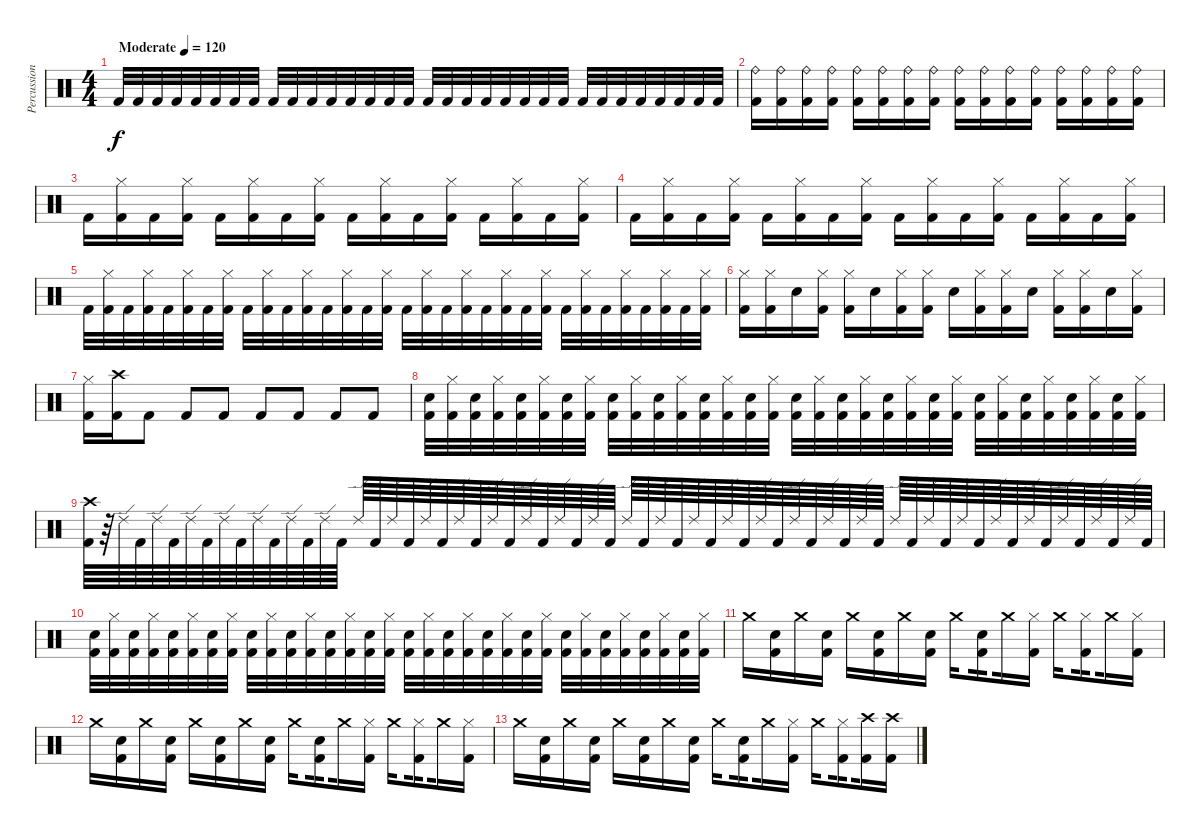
\track ("Percussion" "Percussion") {instrument percussion}
\staff {score}
\articulation defaults
\ts (4 4)
\tempo (120 "Moderate")
\clef neutral
\ks c "Kick (hit) 2".32{dy f} "Kick (hit) 2".32 "Kick (hit) 2".32 "Kick (hit) 2".32 "Kick (hit) 2".32 "Kick (hit) 2".32 "Kick (hit) 2".32 "Kick (hit) 2".32 "Kick (hit) 2".32 "Kick (hit) 2".32 "Kick (hit) 2".32 "Kick (hit) 2".32 "Kick (hit) 2".32 "Kick (hit) 2".32 "Kick (hit) 2".32 "Kick (hit) 2".32 "Kick (hit) 2".32 "Kick (hit) 2".32 "Kick (hit) 2".32 "Kick (hit) 2".32 "Kick (hit) 2".32 "Kick (hit) 2".32 "Kick (hit) 2".32 "Kick (hit) 2".32 "Kick (hit) 2".32 "Kick (hit) 2".32 "Kick (hit) 2".32 "Kick (hit) 2".32 "Kick (hit) 2".32 "Kick (hit) 2".32 "Kick (hit) 2".32 "Kick (hit) 2".32
|
("Ride (bell)" "Kick (hit) 2").16 ("Ride (bell)" "Kick (hit) 2").16 ("Ride (bell)" "Kick (hit) 2").16 ("Ride (bell)" "Kick (hit) 2").16 ("Ride (bell)" "Kick (hit) 2").16 ("Ride (bell)" "Kick (hit) 2").16 ("Ride (bell)" "Kick (hit) 2").16 ("Ride (bell)" "Kick (hit) 2").16 ("Ride (bell)" "Kick (hit) 2").16 ("Ride (bell)" "Kick (hit) 2").16 ("Ride (bell)" "Kick (hit) 2").16 ("Ride (bell)" "Kick (hit) 2").16 ("Ride (bell)" "Kick (hit) 2").16 ("Ride (bell)" "Kick (hit) 2").16 ("Ride (bell)" "Kick (hit) 2").16 ("Ride (bell)" "Kick (hit) 2").16 |
"Kick (hit) 2".16 ("Hi-Hat (closed)" "Kick (hit) 2").16 "Kick (hit) 2".16 ("Hi-Hat (closed)" "Kick (hit) 2").16 "Kick (hit) 2".16 ("Hi-Hat (closed)" "Kick (hit) 2").16 "Kick (hit) 2".16 ("Hi-Hat (closed)" "Kick (hit) 2").16 "Kick (hit) 2".16 ("Hi-Hat (closed)" "Kick (hit) 2").16 "Kick (hit) 2".16 ("Hi-Hat (closed)" "Kick (hit) 2").16 "Kick (hit) 2".16 ("Hi-Hat (closed)" "Kick (hit) 2").16 "Kick (hit) 2".16 ("Hi-Hat (closed)" "Kick (hit) 2").16 |
"Kick (hit) 2".16 ("Hi-Hat (closed)" "Kick (hit) 2").16 "Kick (hit) 2".16 ("Hi-Hat (closed)" "Kick (hit) 2").16 "Kick (hit) 2".16 ("Hi-Hat (closed)" "Kick (hit) 2").16 "Kick (hit) 2".16 ("Hi-Hat (closed)" "Kick (hit) 2").16 "Kick (hit) 2".16 ("Hi-Hat (closed)" "Kick (hit) 2").16 "Kick (hit) 2".16 ("Hi-Hat (closed)" "Kick (hit) 2").16 "Kick (hit) 2".16 ("Hi-Hat (closed)" "Kick (hit) 2").16 "Kick (hit) 2".16 ("Hi-Hat (closed)" "Kick (hit) 2").16 |
"Kick (hit) 2".32 ("Hi-Hat (closed)" "Kick (hit) 2").32 "Kick (hit) 2".32 ("Hi-Hat (closed)" "Kick (hit) 2").32 "Kick (hit) 2".32 ("Hi-Hat (closed)" "Kick (hit) 2").32 "Kick (hit) 2".32 ("Hi-Hat (closed)" "Kick (hit) 2").32 "Kick (hit) 2".32 ("Hi-Hat (closed)" "Kick (hit) 2").32 "Kick (hit) 2".32 ("Hi-Hat (closed)" "Kick (hit) 2").32 "Kick (hit) 2".32 ("Hi-Hat (closed)" "Kick (hit) 2").32 "Kick (hit) 2".32 ("Hi-Hat (closed)" "Kick (hit) 2").32 "Kick (hit) 2".32 ("Hi-Hat (closed)" "Kick (hit) 2").32 "Kick (hit) 2".32 ("Hi-Hat (closed)" "Kick (hit) 2").32 "Kick (hit) 2".32 ("Hi-Hat (closed)" "Kick (hit) 2").32 "Kick (hit) 2".32 ("Hi-Hat (closed)" "Kick (hit) 2").32 "Kick (hit) 2".32 ("Hi-Hat (closed)" "Kick (hit) 2").32 "Kick (hit) 2".32 ("Hi-Hat (closed)" "Kick (hit) 2").32 "Kick (hit) 2".32 ("Hi-Hat (closed)" "Kick (hit) 2").32 "Kick (hit) 2".32 ("Hi-Hat (closed)" "Kick (hit) 2").32 |
("Hi-Hat (closed)" "Kick (hit) 2").16 ("Hi-Hat (closed)" "Kick (hit) 2").16 "Snare (hit) 2".16 ("Hi-Hat (closed)" "Kick (hit) 2").16 ("Hi-Hat (closed)" "Kick (hit) 2").16 "Snare (hit) 2".16 ("Hi-Hat (closed)" "Kick (hit) 2").16 ("Hi-Hat (closed)" "Kick (hit) 2").16 "Snare (hit) 2".16 ("Hi-Hat (closed)" "Kick (hit) 2").16 ("Hi-Hat (closed)" "Kick (hit) 2").16 "Snare (hit) 2".16 ("Hi-Hat (closed)" "Kick (hit) 2").16 ("Hi-Hat (closed)" "Kick (hit) 2").16 "Snare (hit) 2".16 ("Hi-Hat (closed)" "Kick (hit) 2").16 |
("Hi-Hat (closed)" "Kick (hit) 2").16 ("Crash high (hit)" "Kick (hit) 2").16 "Kick (hit) 2".8 "Kick (hit) 2".8 "Kick (hit) 2".8 "Kick (hit) 2".8 "Kick (hit) 2".8 "Kick (hit) 2".8 "Kick (hit) 2".8 |
("Snare (hit) 2" "Kick (hit) 2").32 ("Hi-Hat (closed)" "Kick (hit) 2").32 ("Snare (hit) 2" "Kick (hit) 2").32 ("Hi-Hat (closed)" "Kick (hit) 2").32 ("Snare (hit) 2" "Kick (hit) 2").32 ("Hi-Hat (closed)" "Kick (hit) 2").32 ("Snare (hit) 2" "Kick (hit) 2").32 ("Hi-Hat (closed)" "Kick (hit) 2").32 ("Snare (hit) 2" "Kick (hit) 2").32 ("Hi-Hat (closed)" "Kick (hit) 2").32 ("Snare (hit) 2" "Kick (hit) 2").32 ("Hi-Hat (closed)" "Kick (hit) 2").32 ("Snare (hit) 2" "Kick (hit) 2").32 ("Hi-Hat (closed)" "Kick (hit) 2").32 ("Snare (hit) 2" "Kick (hit) 2").32 ("Hi-Hat (closed)" "Kick (hit) 2").32 ("Snare (hit) 2" "Kick (hit) 2").32 ("Hi-Hat (closed)" "Kick (hit) 2").32 ("Snare (hit) 2" "Kick (hit) 2").32 ("Hi-Hat (closed)" "Kick (hit) 2").32 ("Snare (hit) 2" "Kick (hit) 2").32 ("Hi-Hat (closed)" "Kick (hit) 2").32 ("Snare (hit) 2" "Kick (hit) 2").32 ("Hi-Hat (closed)" "Kick (hit) 2").32 ("Snare (hit) 2" "Kick (hit) 2").32 ("Hi-Hat (closed)" "Kick (hit) 2").32 ("Snare (hit) 2" "Kick (hit) 2").32 ("Hi-Hat (closed)" "Kick (hit) 2").32 ("Snare (hit) 2" "Kick (hit) 2").32 ("Hi-Hat (closed)" "Kick (hit) 2").32 ("Snare (hit) 2" "Kick (hit) 2").32 ("Hi-Hat (closed)" "Kick (hit) 2").32 |
("Crash high (hit)" "Kick (hit) 2").64 r.64 "Ride (edge) 2".64 "Kick (hit) 2".64 "Ride (edge) 2".64 "Kick (hit) 2".64 "Ride (edge) 2".64 "Kick (hit) 2".64 "Ride (edge) 2".64 "Kick (hit) 2".64 "Ride (edge) 2".64 "Kick (hit) 2".64 "Ride (edge) 2".64 "Kick (hit) 2".64 "Ride (edge) 2".64 "Kick (hit) 2".64 "Ride (edge) 2".64 "Kick (hit) 2".64 "Ride (edge) 2".64 "Kick (hit) 2".64 "Ride (edge) 2".64 "Kick (hit) 2".64 "Ride (edge) 2".64 "Kick (hit) 2".64 "Ride (edge) 2".64 "Kick (hit) 2".64 "Ride (edge) 2".64 "Kick (hit) 2".64 "Ride (edge) 2".64 "Kick (hit) 2".64 "Ride (edge) 2".64 "Kick (hit) 2".64 "Ride (edge) 2".64 "Kick (hit) 2".64 "Ride (edge) 2".64 "Kick (hit) 2".64 "Ride (edge) 2".64 "Kick (hit) 2".64 "Ride (edge) 2".64 "Kick (hit) 2".64 "Ride (edge) 2".64 "Kick (hit) 2".64 "Ride (edge) 2".64 "Kick (hit) 2".64 "Ride (edge) 2".64 "Kick (hit) 2".64 "Ride (edge) 2".64 "Kick (hit) 2".64 "Ride (edge) 2".64 "Kick (hit) 2".64 "Ride (edge) 2".64 "Kick (hit) 2".64 "Ride (edge) 2".64 "Kick (hit) 2".64 "Ride (edge) 2".64 "Kick (hit) 2".64 "Ride (edge) 2".64 "Kick (hit) 2".64 "Ride (edge) 2".64 "Kick (hit) 2".64 "Ride (edge) 2".64 "Kick (hit) 2".64 "Ride (edge) 2".64 "Kick (hit) 2".64 |
("Snare (hit) 2" "Kick (hit) 2").32 ("Hi-Hat (closed)" "Kick (hit) 2").32 ("Snare (hit) 2" "Kick (hit) 2").32 ("Hi-Hat (closed)" "Kick (hit) 2").32 ("Snare (hit) 2" "Kick (hit) 2").32 ("Hi-Hat (closed)" "Kick (hit) 2").32 ("Snare (hit) 2" "Kick (hit) 2").32 ("Hi-Hat (closed)" "Kick (hit) 2").32 ("Snare (hit) 2" "Kick (hit) 2").32 ("Hi-Hat (closed)" "Kick (hit) 2").32 ("Snare (hit) 2" "Kick (hit) 2").32 ("Hi-Hat (closed)" "Kick (hit) 2").32 ("Snare (hit) 2" "Kick (hit) 2").32 ("Hi-Hat (closed)" "Kick (hit) 2").32 ("Snare (hit) 2" "Kick (hit) 2").32 ("Hi-Hat (closed)" "Kick (hit) 2").32 ("Snare (hit) 2" "Kick (hit) 2").32 ("Hi-Hat (closed)" "Kick (hit) 2").32 ("Snare (hit) 2" "Kick (hit) 2").32 ("Hi-Hat (closed)" "Kick (hit) 2").32 ("Snare (hit) 2" "Kick (hit) 2").32 ("Hi-Hat (closed)" "Kick (hit) 2").32 ("Snare (hit) 2" "Kick (hit) 2").32 ("Hi-Hat (closed)" "Kick (hit) 2").32 ("Snare (hit) 2" "Kick (hit) 2").32 ("Hi-Hat (closed)" "Kick (hit) 2").32 ("Snare (hit) 2" "Kick (hit) 2").32 ("Hi-Hat (closed)" "Kick (hit) 2").32 ("Snare (hit) 2" "Kick (hit) 2").32 ("Hi-Hat (closed)" "Kick (hit) 2").32 ("Snare (hit) 2" "Kick (hit) 2").32 ("Hi-Hat (closed)" "Kick (hit) 2").32 |
"Crash medium (hit)".16 ("Snare (hit) 2" "Kick (hit) 2").16 "Crash medium (hit)".16 ("Snare (hit) 2" "Kick (hit) 2").16 "Crash medium (hit)".16 ("Snare (hit) 2" "Kick (hit) 2").16 "Crash medium (hit)".16 ("Snare (hit) 2" "Kick (hit) 2").16 "Crash medium (hit)".16{beam splitsecondary} ("Snare (hit) 2" "Kick (hit) 2").16{beam splitsecondary} "Crash medium (hit)".16 ("Hi-Hat (closed)" "Kick (hit) 2").16 "Crash medium (hit)".16{beam splitsecondary} ("Hi-Hat (closed)" "Kick (hit) 2").16{beam splitsecondary} "Crash medium (hit)".16 ("Hi-Hat (closed)" "Kick (hit) 2").16 |
"Crash medium (hit)".16 ("Snare (hit) 2" "Kick (hit) 2").16 "Crash medium (hit)".16 ("Snare (hit) 2" "Kick (hit) 2").16 "Crash medium (hit)".16 ("Snare (hit) 2" "Kick (hit) 2").16 "Crash medium (hit)".16 ("Snare (hit) 2" "Kick (hit) 2").16 "Crash medium (hit)".16{beam splitsecondary} ("Snare (hit) 2" "Kick (hit) 2").16{beam splitsecondary} "Crash medium (hit)".16 ("Hi-Hat (closed)" "Kick (hit) 2").16 "Crash medium (hit)".16{beam splitsecondary} ("Hi-Hat (closed)" "Kick (hit) 2").16{beam splitsecondary} "Crash medium (hit)".16 ("Hi-Hat (closed)" "Kick (hit) 2").16 |
"Crash medium (hit)".16 ("Snare (hit) 2" "Kick (hit) 2").16 "Crash medium (hit)".16 ("Snare (hit) 2" "Kick (hit) 2").16 "Crash medium (hit)".16 ("Snare (hit) 2" "Kick (hit) 2").16 "Crash medium (hit)".16 ("Snare (hit) 2" "Kick (hit) 2").16 "Crash medium (hit)".16{beam splitsecondary} ("Snare (hit) 2" "Kick (hit) 2").16{beam splitsecondary} "Crash medium (hit)".16 ("Hi-Hat (closed)" "Kick (hit) 2").16 "Crash medium (hit)".16{beam splitsecondary} ("Hi-Hat (closed)" "Kick (hit) 2").16{beam splitsecondary} ("Crash high (hit)" "Kick (hit) 2").16 ("Crash high (hit)" "Kick (hit) 2").16
